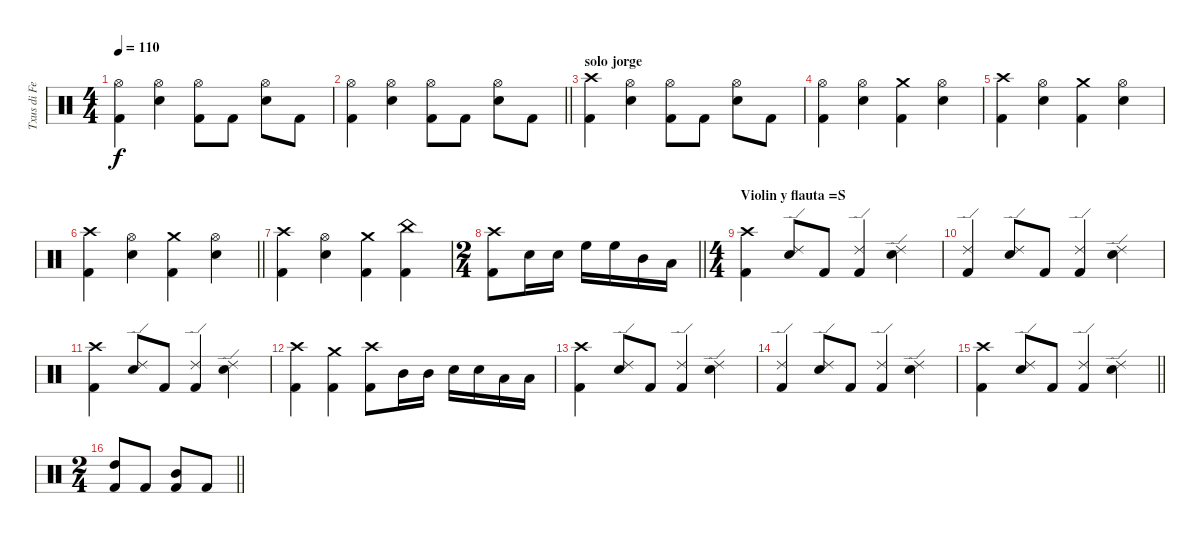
\track ("Txus di Fellatio" "Txus di Fe") {instrument percussion}
\staff {score}
\articulation defaults
\ts (4 4)
\tempo 110
\clef neutral
\ks c
("Kick (hit) 2" "Hi-Hat (open)").4{dy f} ("Hi-Hat (open)" "Electric Snare (hit)").4 ("Kick (hit) 2" "Hi-Hat (open)").8 "Kick (hit) 2".8 ("Hi-Hat (open)" "Electric Snare (hit)").8 "Kick (hit) 2".8 |
\barLineRight lightlight
("Kick (hit) 2" "Hi-Hat (open)").4 ("Hi-Hat (open)" "Electric Snare (hit)").4 ("Kick (hit) 2" "Hi-Hat (open)").8 "Kick (hit) 2".8 ("Hi-Hat (open)" "Electric Snare (hit)").8 "Kick (hit) 2".8 |
\section ("" "solo jorge")
("Kick (hit) 2" "Crash high (hit)").4 ("Hi-Hat (open)" "Electric Snare (hit)").4 ("Kick (hit) 2" "Hi-Hat (open)").8 "Kick (hit) 2".8 ("Hi-Hat (open)" "Electric Snare (hit)").8 "Kick (hit) 2".8 |
("Kick (hit) 2" "Hi-Hat (open)").4 ("Hi-Hat (open)" "Electric Snare (hit)").4 ("Kick (hit) 2" "Crash medium (hit)").4 ("Hi-Hat (open)" "Electric Snare (hit)").4 |
("Kick (hit) 2" "Crash high (hit)").4 ("Hi-Hat (open)" "Electric Snare (hit)").4 ("Kick (hit) 2" "Crash medium (hit)").4 ("Hi-Hat (open)" "Electric Snare (hit)").4 |
\barLineRight lightlight
("Kick (hit) 2" "Crash high (hit)").4 ("Hi-Hat (open)" "Electric Snare (hit)").4 ("Kick (hit) 2" "Crash medium (hit)").4 ("Hi-Hat (open)" "Electric Snare (hit)").4 |
("Kick (hit) 2" "Crash high (hit)").4 ("Hi-Hat (open)" "Electric Snare (hit)").4 ("Kick (hit) 2" "Crash medium (hit)").4 ("Kick (hit) 2" "China (hit)").4 |
\ts (2 4)
\barLineRight lightlight
("Kick (hit) 2" "Crash high (hit)").8 "Electric Snare (hit)".16 "Electric Snare (hit)".16 "High Floor Tom (hit)".16 "High Floor Tom (hit)".16 "Mid Tom (hit)".16 "Low Tom (hit)".16 |
\ts (4 4)
\section ("" "Violin y flauta =S")
("Kick (hit) 2" "Crash high (hit)").4 ("Ride (edge) 2" "Electric Snare (hit)").8 "Kick (hit) 2".8 ("Kick (hit) 2" "Ride (edge) 2").4 ("Ride (edge) 2" "Electric Snare (hit)").4 |
("Kick (hit) 2" "Ride (edge) 2").4 ("Ride (edge) 2" "Electric Snare (hit)").8 "Kick (hit) 2".8 ("Kick (hit) 2" "Ride (edge) 2").4 ("Ride (edge) 2" "Electric Snare (hit)").4 |
("Kick (hit) 2" "Crash high (hit)").4 ("Ride (edge) 2" "Electric Snare (hit)").8 "Kick (hit) 2".8 ("Kick (hit) 2" "Ride (edge) 2").4 ("Ride (edge) 2" "Electric Snare (hit)").4 |
("Kick (hit) 2" "Crash high (hit)").4 ("Kick (hit) 2" "Crash medium (hit)").4 ("Kick (hit) 2" "Crash high (hit)").8 "Mid Tom (hit)".16 "Mid Tom (hit)".16 "Electric Snare (hit)".16 "Electric Snare (hit)".16 "Low Tom (hit)".16 "Low Tom (hit)".16 |
("Kick (hit) 2" "Crash high (hit)").4 ("Ride (edge) 2" "Electric Snare (hit)").8 "Kick (hit) 2".8 ("Kick (hit) 2" "Ride (edge) 2").4 ("Ride (edge) 2" "Electric Snare (hit)").4 |
("Kick (hit) 2" "Ride (edge) 2").4 ("Ride (edge) 2" "Electric Snare (hit)").8 "Kick (hit) 2".8 ("Kick (hit) 2" "Ride (edge) 2").4 ("Ride (edge) 2" "Electric Snare (hit)").4 |
\barLineRight lightlight
("Kick (hit) 2" "Crash high (hit)").4 ("Ride (edge) 2" "Electric Snare (hit)").8 "Kick (hit) 2".8 ("Kick (hit) 2" "Ride (edge) 2").4 ("Ride (edge) 2" "Electric Snare (hit)").4 |
\ts (2 4)
\barLineRight lightlight
("Kick (hit) 2" "High Tom (hit)").8 "Kick (hit) 2".8 ("Kick (hit) 2" "Mid Tom (hit)").8 "Kick (hit) 2".8
